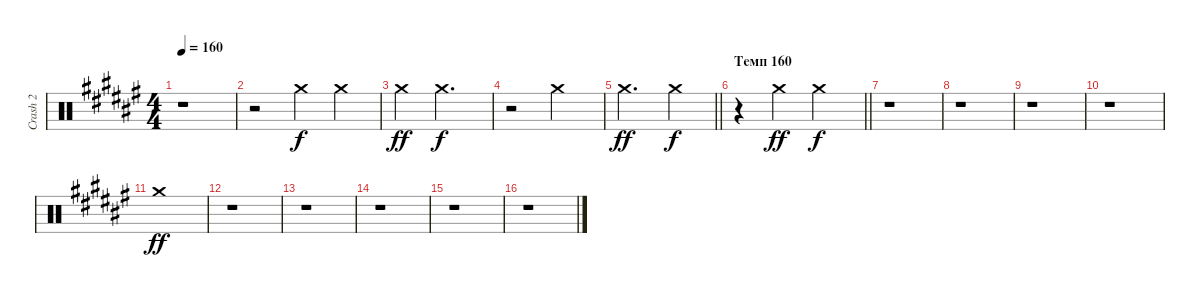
\track ("Crash 2" "Crash 2") {instrument percussion}
\staff {score}
\articulation defaults
\ts (4 4)
\tempo 160
\clef neutral
\ks d#minor
r.1{dy ff} |
r.2 "Crash medium (hit)".4{dy f} "Crash medium (hit)".4 |
"Crash medium (hit)".4{dy ff} "Crash medium (hit)".2{d dy f} |
r.2 "Crash medium (hit)".2 |
\barLineRight lightlight "Crash medium (hit)".2{d dy ff} "Crash medium (hit)".4{dy f}
|
\section ("" "Темп 160")
\barLineRight lightlight
r.4 "Crash medium (hit)".4{dy ff} "Crash medium (hit)".2{dy f} |
r.1 |
r.1 |
r.1 |
r.1 |
"Crash medium (hit)".1{dy ff} |
r.1 |
r.1 |
r.1 |
r.1 |
r.1
